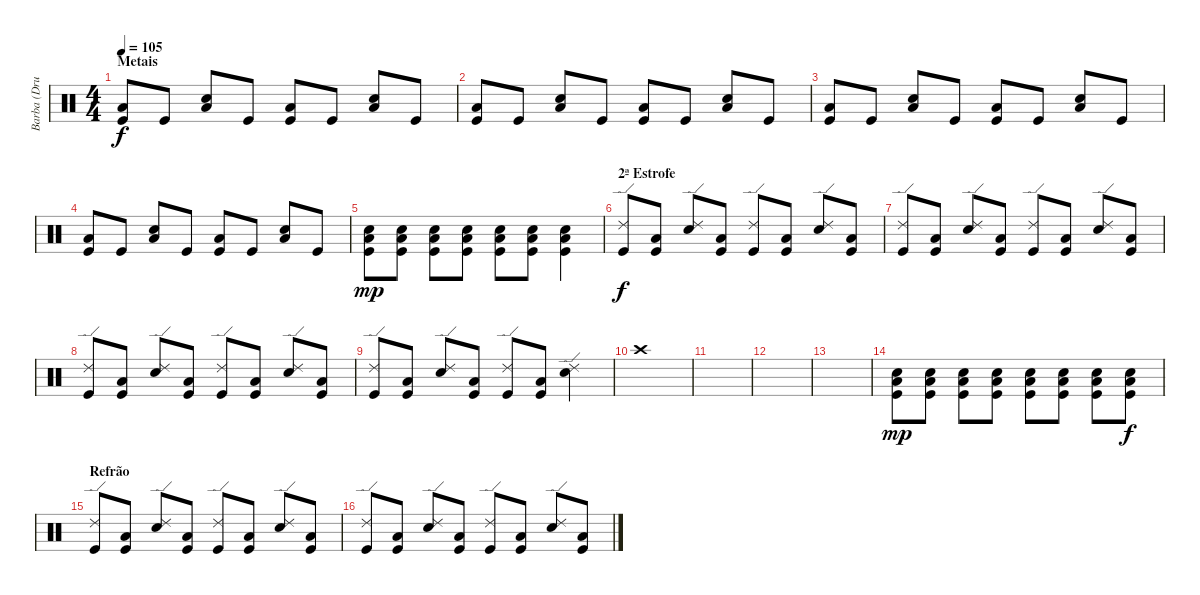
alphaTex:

\track ("Barba (Drums)" "Barba (Dru") {instrument percussion}
\staff {score}
\articulation defaults
\ts (4 4)
\section ("" "Metais")
\tempo 105
\clef neutral
\ks c
("Low Floor Tom (hit)" "Kick (hit)").8{dy f volume 10} "Kick (hit)".8 ("Low Floor Tom (hit)" "Electric Snare (hit)").8 "Kick (hit)".8 ("Low Floor Tom (hit)" "Kick (hit)").8 "Kick (hit)".8 ("Low Floor Tom (hit)" "Electric Snare (hit)").8 "Kick (hit)".8 |
("Low Floor Tom (hit)" "Kick (hit)").8 "Kick (hit)".8 ("Low Floor Tom (hit)" "Electric Snare (hit)").8 "Kick (hit)".8 ("Low Floor Tom (hit)" "Kick (hit)").8 "Kick (hit)".8 ("Low Floor Tom (hit)" "Electric Snare (hit)").8 "Kick (hit)".8 |
("Low Floor Tom (hit)" "Kick (hit)").8 "Kick (hit)".8 ("Low Floor Tom (hit)" "Electric Snare (hit)").8 "Kick (hit)".8 ("Low Floor Tom (hit)" "Kick (hit)").8 "Kick (hit)".8 ("Low Floor Tom (hit)" "Electric Snare (hit)").8 "Kick (hit)".8 |
("Low Floor Tom (hit)" "Kick (hit)").8 "Kick (hit)".8 ("Low Floor Tom (hit)" "Electric Snare (hit)").8 "Kick (hit)".8 ("Low Floor Tom (hit)" "Kick (hit)").8 "Kick (hit)".8 ("Low Floor Tom (hit)" "Electric Snare (hit)").8 "Kick (hit)".8 |
("Electric Snare (hit)" "Low Floor Tom (hit)" "Kick (hit)").8{dy mp} ("Electric Snare (hit)" "Low Floor Tom (hit)" "Kick (hit)").8 ("Electric Snare (hit)" "Low Floor Tom (hit)" "Kick (hit)").8 ("Electric Snare (hit)" "Low Floor Tom (hit)" "Kick (hit)").8 ("Electric Snare (hit)" "Low Floor Tom (hit)" "Kick (hit)").8 ("Electric Snare (hit)" "Low Floor Tom (hit)" "Kick (hit)").8 ("Electric Snare (hit)" "Low Floor Tom (hit)" "Kick (hit)").4 |
\section ("" "2ª Estrofe")
("Ride (edge) 2" "Kick (hit)").8{dy f volume 13} ("Low Floor Tom (hit)" "Kick (hit)").8 ("Ride (edge) 2" "Electric Snare (hit)").8 ("Low Floor Tom (hit)" "Kick (hit)").8 ("Ride (edge) 2" "Kick (hit)").8 ("Low Floor Tom (hit)" "Kick (hit)").8 ("Ride (edge) 2" "Electric Snare (hit)").8 ("Low Floor Tom (hit)" "Kick (hit)").8 |
("Ride (edge) 2" "Kick (hit)").8 ("Low Floor Tom (hit)" "Kick (hit)").8 ("Ride (edge) 2" "Electric Snare (hit)").8 ("Low Floor Tom (hit)" "Kick (hit)").8 ("Ride (edge) 2" "Kick (hit)").8 ("Low Floor Tom (hit)" "Kick (hit)").8 ("Ride (edge) 2" "Electric Snare (hit)").8 ("Low Floor Tom (hit)" "Kick (hit)").8 |
("Ride (edge) 2" "Kick (hit)").8 ("Low Floor Tom (hit)" "Kick (hit)").8 ("Ride (edge) 2" "Electric Snare (hit)").8 ("Low Floor Tom (hit)" "Kick (hit)").8 ("Ride (edge) 2" "Kick (hit)").8 ("Low Floor Tom (hit)" "Kick (hit)").8 ("Ride (edge) 2" "Electric Snare (hit)").8 ("Low Floor Tom (hit)" "Kick (hit)").8 |
("Ride (edge) 2" "Kick (hit)").8 ("Low Floor Tom (hit)" "Kick (hit)").8 ("Ride (edge) 2" "Electric Snare (hit)").8 ("Low Floor Tom (hit)" "Kick (hit)").8 ("Ride (edge) 2" "Kick (hit)").8 ("Low Floor Tom (hit)" "Kick (hit)").8 ("Ride (edge) 2" "Electric Snare (hit)").4 |
"Crash high (hit)".1{volume 11} |
|
|
|
("Electric Snare (hit)" "Low Floor Tom (hit)" "Kick (hit)").8{dy mp} ("Electric Snare (hit)" "Low Floor Tom (hit)" "Kick (hit)").8 ("Electric Snare (hit)" "Low Floor Tom (hit)" "Kick (hit)").8 ("Electric Snare (hit)" "Low Floor Tom (hit)" "Kick (hit)").8 ("Electric Snare (hit)" "Low Floor Tom (hit)" "Kick (hit)").8 ("Electric Snare (hit)" "Low Floor Tom (hit)" "Kick (hit)").8 ("Electric Snare (hit)" "Low Floor Tom (hit)" "Kick (hit)").8 ("Electric Snare (hit)" "Low Floor Tom (hit)" "Kick (hit)").8{dy f} |
\section ("" "Refrão")
("Ride (edge) 2" "Kick (hit)").8{volume 13} ("Low Floor Tom (hit)" "Kick (hit)").8 ("Ride (edge) 2" "Electric Snare (hit)").8 ("Low Floor Tom (hit)" "Kick (hit)").8 ("Ride (edge) 2" "Kick (hit)").8 ("Low Floor Tom (hit)" "Kick (hit)").8 ("Ride (edge) 2" "Electric Snare (hit)").8 ("Low Floor Tom (hit)" "Kick (hit)").8 |
("Ride (edge) 2" "Kick (hit)").8 ("Low Floor Tom (hit)" "Kick (hit)").8 ("Ride (edge) 2" "Electric Snare (hit)").8 ("Low Floor Tom (hit)" "Kick (hit)").8 ("Ride (edge) 2" "Kick (hit)").8 ("Low Floor Tom (hit)" "Kick (hit)").8 ("Ride (edge) 2" "Electric Snare (hit)").8 ("Low Floor Tom (hit)" "Kick (hit)").8
